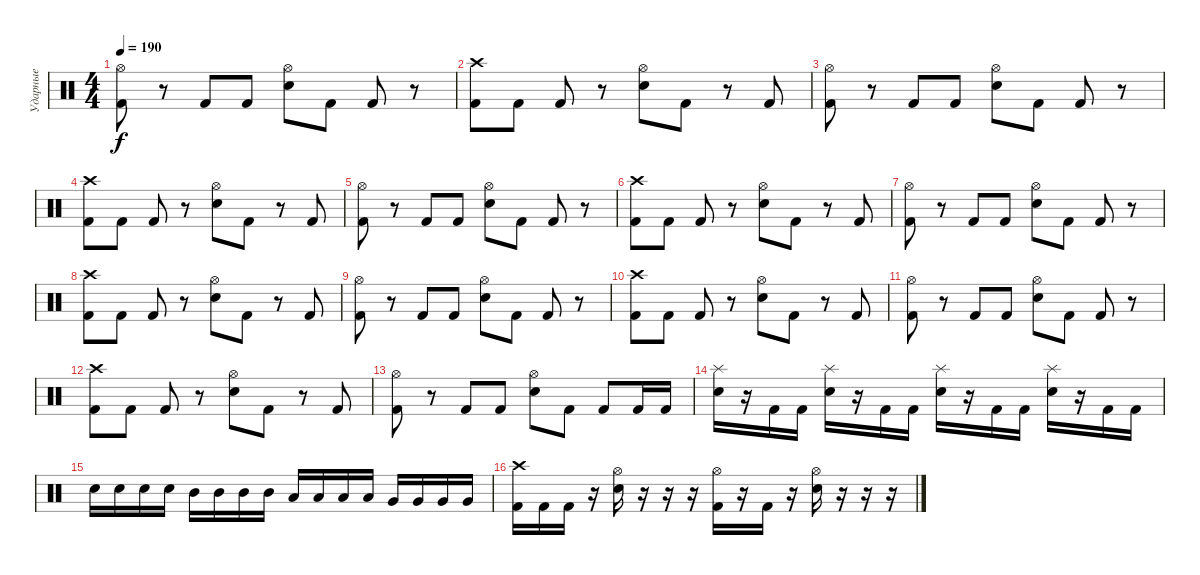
\track ("Ударные" "Ударные") {instrument percussion}
\staff {score}
\articulation defaults
\ts (4 4)
\tempo 190
\clef neutral
\ks c
("Hi-Hat (open)" "Kick (hit) 2").8{dy f} r.8 "Kick (hit) 2".8 "Kick (hit) 2".8 ("Hi-Hat (open)" "Electric Snare (hit)").8 "Kick (hit) 2".8 "Kick (hit) 2".8 r.8 |
("Crash high (hit)" "Kick (hit) 2").8 "Kick (hit) 2".8 "Kick (hit) 2".8 r.8 ("Hi-Hat (open)" "Electric Snare (hit)").8 "Kick (hit) 2".8 r.8 "Kick (hit) 2".8 |
("Hi-Hat (open)" "Kick (hit) 2").8 r.8 "Kick (hit) 2".8 "Kick (hit) 2".8 ("Hi-Hat (open)" "Electric Snare (hit)").8 "Kick (hit) 2".8 "Kick (hit) 2".8 r.8 |
("Crash high (hit)" "Kick (hit) 2").8 "Kick (hit) 2".8 "Kick (hit) 2".8 r.8 ("Hi-Hat (open)" "Electric Snare (hit)").8 "Kick (hit) 2".8 r.8 "Kick (hit) 2".8 |
("Hi-Hat (open)" "Kick (hit) 2").8 r.8 "Kick (hit) 2".8 "Kick (hit) 2".8 ("Hi-Hat (open)" "Electric Snare (hit)").8 "Kick (hit) 2".8 "Kick (hit) 2".8 r.8 |
("Crash high (hit)" "Kick (hit) 2").8 "Kick (hit) 2".8 "Kick (hit) 2".8 r.8 ("Hi-Hat (open)" "Electric Snare (hit)").8 "Kick (hit) 2".8 r.8 "Kick (hit) 2".8 |
("Hi-Hat (open)" "Kick (hit) 2").8 r.8 "Kick (hit) 2".8 "Kick (hit) 2".8 ("Hi-Hat (open)" "Electric Snare (hit)").8 "Kick (hit) 2".8 "Kick (hit) 2".8 r.8 |
("Crash high (hit)" "Kick (hit) 2").8 "Kick (hit) 2".8 "Kick (hit) 2".8 r.8 ("Hi-Hat (open)" "Electric Snare (hit)").8 "Kick (hit) 2".8 r.8 "Kick (hit) 2".8 |
("Hi-Hat (open)" "Kick (hit) 2").8 r.8 "Kick (hit) 2".8 "Kick (hit) 2".8 ("Hi-Hat (open)" "Electric Snare (hit)").8 "Kick (hit) 2".8 "Kick (hit) 2".8 r.8 |
("Crash high (hit)" "Kick (hit) 2").8 "Kick (hit) 2".8 "Kick (hit) 2".8 r.8 ("Hi-Hat (open)" "Electric Snare (hit)").8 "Kick (hit) 2".8 r.8 "Kick (hit) 2".8 |
("Hi-Hat (open)" "Kick (hit) 2").8 r.8 "Kick (hit) 2".8 "Kick (hit) 2".8 ("Hi-Hat (open)" "Electric Snare (hit)").8 "Kick (hit) 2".8 "Kick (hit) 2".8 r.8 |
("Crash high (hit)" "Kick (hit) 2").8 "Kick (hit) 2".8 "Kick (hit) 2".8 r.8 ("Hi-Hat (open)" "Electric Snare (hit)").8 "Kick (hit) 2".8 r.8 "Kick (hit) 2".8 |
("Hi-Hat (open)" "Kick (hit) 2").8 r.8 "Kick (hit) 2".8 "Kick (hit) 2".8 ("Hi-Hat (open)" "Electric Snare (hit)").8 "Kick (hit) 2".8 "Kick (hit) 2".8 "Kick (hit) 2".16 "Kick (hit) 2".16 |
("Splash (hit)" "Electric Snare (hit)").16 r.16 "Kick (hit) 2".16 "Kick (hit) 2".16 ("Splash (hit)" "Electric Snare (hit)").16 r.16 "Kick (hit) 2".16 "Kick (hit) 2".16 ("Splash (hit)" "Electric Snare (hit)").16 r.16 "Kick (hit) 2".16 "Kick (hit) 2".16 ("Splash (hit)" "Electric Snare (hit)").16 r.16 "Kick (hit) 2".16 "Kick (hit) 2".16 |
"Electric Snare (hit)".16 "Electric Snare (hit)".16 "Electric Snare (hit)".16 "Electric Snare (hit)".16 "Mid Tom (hit)".16 "Mid Tom (hit)".16 "Mid Tom (hit)".16 "Mid Tom (hit)".16 "Low Tom (hit)".16 "Low Tom (hit)".16 "Low Tom (hit)".16 "Low Tom (hit)".16 "Very Low Tom (hit)".16 "Very Low Tom (hit)".16 "Very Low Tom (hit)".16 "Very Low Tom (hit)".16 |
("Crash high (hit)" "Kick (hit) 2").16 "Kick (hit) 2".16 "Kick (hit) 2".16 r.16 ("Hi-Hat (open)" "Electric Snare (hit)").16 r.16 r.16 r.16 ("Hi-Hat (open)" "Kick (hit) 2").16 r.16 "Kick (hit) 2".16 r.16 ("Hi-Hat (open)" "Electric Snare (hit)").16 r.16 r.16 r.16
